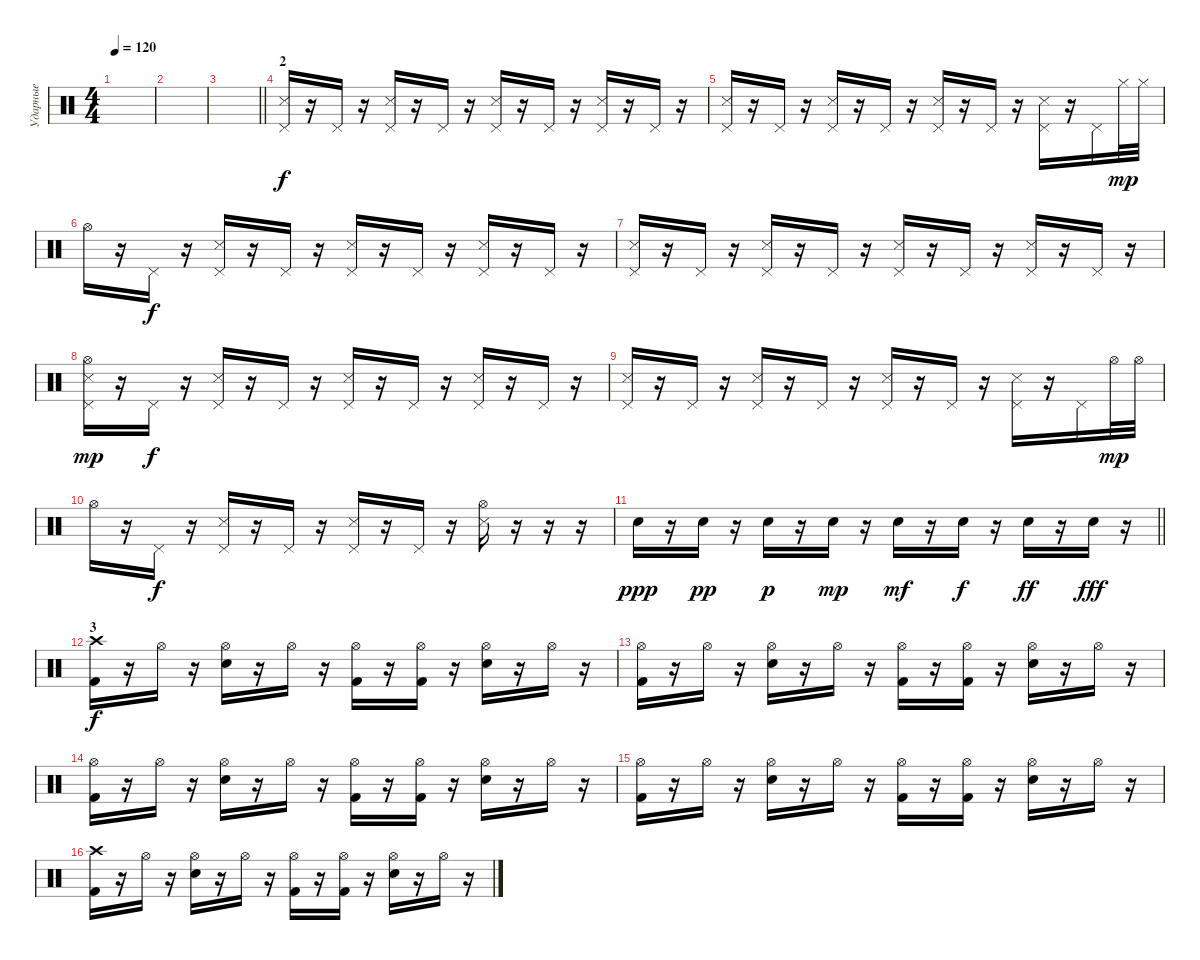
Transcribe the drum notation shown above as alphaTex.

\track ("Ударные" "Ударные") {instrument percussion}
\staff {score}
\articulation defaults
\ts (4 4)
\tempo 120
\clef neutral
\ks c
|
|
\barLineRight lightlight
|
\section ("" "2")
("Pedal Hi-Hat (hit)" "Snare (side stick) 3").16{dy f} r.16 "Pedal Hi-Hat (hit)".16 r.16 ("Pedal Hi-Hat (hit)" "Snare (side stick) 3").16 r.16 "Pedal Hi-Hat (hit)".16 r.16 ("Pedal Hi-Hat (hit)" "Snare (side stick) 3").16 r.16 "Pedal Hi-Hat (hit)".16 r.16 ("Pedal Hi-Hat (hit)" "Snare (side stick) 3").16 r.16 "Pedal Hi-Hat (hit)".16 r.16 |
("Pedal Hi-Hat (hit)" "Snare (side stick) 3").16 r.16 "Pedal Hi-Hat (hit)".16 r.16 ("Pedal Hi-Hat (hit)" "Snare (side stick) 3").16 r.16 "Pedal Hi-Hat (hit)".16 r.16 ("Pedal Hi-Hat (hit)" "Snare (side stick) 3").16 r.16 "Pedal Hi-Hat (hit)".16 r.16 ("Pedal Hi-Hat (hit)" "Snare (side stick) 3").16 r.16 "Pedal Hi-Hat (hit)".16 "Hi-Hat (closed)".32{dy mp} "Hi-Hat (closed)".32 |
"Hi-Hat (open)".16 r.16 "Pedal Hi-Hat (hit)".16{dy f} r.16 ("Pedal Hi-Hat (hit)" "Snare (side stick) 3").16 r.16 "Pedal Hi-Hat (hit)".16 r.16 ("Pedal Hi-Hat (hit)" "Snare (side stick) 3").16 r.16 "Pedal Hi-Hat (hit)".16 r.16 ("Pedal Hi-Hat (hit)" "Snare (side stick) 3").16 r.16 "Pedal Hi-Hat (hit)".16 r.16 |
("Pedal Hi-Hat (hit)" "Snare (side stick) 3").16 r.16 "Pedal Hi-Hat (hit)".16 r.16 ("Pedal Hi-Hat (hit)" "Snare (side stick) 3").16 r.16 "Pedal Hi-Hat (hit)".16 r.16 ("Pedal Hi-Hat (hit)" "Snare (side stick) 3").16 r.16 "Pedal Hi-Hat (hit)".16 r.16 ("Pedal Hi-Hat (hit)" "Snare (side stick) 3").16 r.16 "Pedal Hi-Hat (hit)".16 r.16 |
("Pedal Hi-Hat (hit)" "Hi-Hat (open)" "Snare (side stick) 3").16{dy mp} r.16 "Pedal Hi-Hat (hit)".16{dy f} r.16 ("Pedal Hi-Hat (hit)" "Snare (side stick) 3").16 r.16 "Pedal Hi-Hat (hit)".16 r.16 ("Pedal Hi-Hat (hit)" "Snare (side stick) 3").16 r.16 "Pedal Hi-Hat (hit)".16 r.16 ("Pedal Hi-Hat (hit)" "Snare (side stick) 3").16 r.16 "Pedal Hi-Hat (hit)".16 r.16 |
("Pedal Hi-Hat (hit)" "Snare (side stick) 3").16 r.16 "Pedal Hi-Hat (hit)".16 r.16 ("Pedal Hi-Hat (hit)" "Snare (side stick) 3").16 r.16 "Pedal Hi-Hat (hit)".16 r.16 ("Pedal Hi-Hat (hit)" "Snare (side stick) 3").16 r.16 "Pedal Hi-Hat (hit)".16 r.16 ("Pedal Hi-Hat (hit)" "Snare (side stick) 3").16 r.16 "Pedal Hi-Hat (hit)".16 "Hi-Hat (open)".32{dy mp} "Hi-Hat (open)".32 |
"Hi-Hat (open)".16 r.16 "Pedal Hi-Hat (hit)".16{dy f} r.16 ("Pedal Hi-Hat (hit)" "Snare (side stick) 3").16 r.16 "Pedal Hi-Hat (hit)".16 r.16 ("Pedal Hi-Hat (hit)" "Snare (side stick) 3").16 r.16 "Pedal Hi-Hat (hit)".16 r.16 ("Hi-Hat (open)" "Snare (side stick) 3").16 r.16 r.16 r.16 |
\barLineRight lightlight "Electric Snare (hit)".16{dy ppp}
r.16 "Electric Snare (hit)".16{dy pp} r.16 "Electric Snare (hit)".16{dy p} r.16 "Electric Snare (hit)".16{dy mp} r.16 "Electric Snare (hit)".16{dy mf} r.16 "Electric Snare (hit)".16{dy f} r.16 "Electric Snare (hit)".16{dy ff} r.16 "Electric Snare (hit)".16{dy fff} r.16 |
\section ("" "3")
("Crash high (hit)" "Kick (hit) 2").16{dy f} r.16 "Hi-Hat (open)".16 r.16 ("Hi-Hat (open)" "Electric Snare (hit)").16 r.16 "Hi-Hat (open)".16 r.16 ("Hi-Hat (open)" "Kick (hit) 2").16 r.16 ("Hi-Hat (open)" "Kick (hit) 2").16 r.16 ("Hi-Hat (open)" "Electric Snare (hit)").16 r.16 "Hi-Hat (open)".16 r.16 |
("Hi-Hat (open)" "Kick (hit) 2").16 r.16 "Hi-Hat (open)".16 r.16 ("Hi-Hat (open)" "Electric Snare (hit)").16 r.16 "Hi-Hat (open)".16 r.16 ("Hi-Hat (open)" "Kick (hit) 2").16 r.16 ("Hi-Hat (open)" "Kick (hit) 2").16 r.16 ("Hi-Hat (open)" "Electric Snare (hit)").16 r.16 "Hi-Hat (open)".16 r.16 |
("Hi-Hat (open)" "Kick (hit) 2").16 r.16 "Hi-Hat (open)".16 r.16 ("Hi-Hat (open)" "Electric Snare (hit)").16 r.16 "Hi-Hat (open)".16 r.16 ("Hi-Hat (open)" "Kick (hit) 2").16 r.16 ("Hi-Hat (open)" "Kick (hit) 2").16 r.16 ("Hi-Hat (open)" "Electric Snare (hit)").16 r.16 "Hi-Hat (open)".16 r.16 |
("Hi-Hat (open)" "Kick (hit) 2").16 r.16 "Hi-Hat (open)".16 r.16 ("Hi-Hat (open)" "Electric Snare (hit)").16 r.16 "Hi-Hat (open)".16 r.16 ("Hi-Hat (open)" "Kick (hit) 2").16 r.16 ("Hi-Hat (open)" "Kick (hit) 2").16 r.16 ("Hi-Hat (open)" "Electric Snare (hit)").16 r.16 "Hi-Hat (open)".16 r.16 |
("Crash high (hit)" "Kick (hit) 2").16 r.16 "Hi-Hat (open)".16 r.16 ("Hi-Hat (open)" "Electric Snare (hit)").16 r.16 "Hi-Hat (open)".16 r.16 ("Hi-Hat (open)" "Kick (hit) 2").16 r.16 ("Hi-Hat (open)" "Kick (hit) 2").16 r.16 ("Hi-Hat (open)" "Electric Snare (hit)").16 r.16 "Hi-Hat (open)".16 r.16
